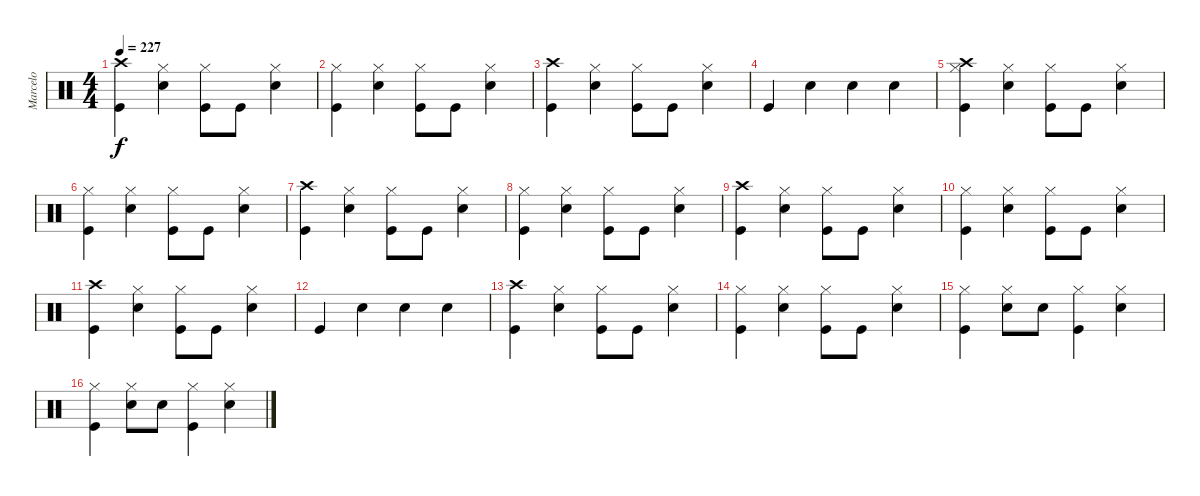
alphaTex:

\track ("Marcelo" "Marcelo") {instrument percussion}
\staff {score}
\articulation defaults
\ts (4 4)
\tempo 227
\clef neutral
\ks c
("Crash high (hit)" "Kick (hit)").4{dy f} ("Hi-Hat (closed)" "Snare (hit) 2").4 ("Hi-Hat (closed)" "Kick (hit)").8 "Kick (hit)".8 ("Hi-Hat (closed)" "Snare (hit) 2").4 |
("Hi-Hat (closed)" "Kick (hit)").4 ("Hi-Hat (closed)" "Snare (hit) 2").4 ("Hi-Hat (closed)" "Kick (hit)").8 "Kick (hit)".8 ("Hi-Hat (closed)" "Snare (hit) 2").4 |
("Crash high (hit)" "Kick (hit)").4 ("Hi-Hat (closed)" "Snare (hit) 2").4 ("Hi-Hat (closed)" "Kick (hit)").8 "Kick (hit)".8 ("Hi-Hat (closed)" "Snare (hit) 2").4 |
"Kick (hit)".4 "Snare (hit) 2".4 "Snare (hit) 2".4 "Snare (hit) 2".4 |
("Crash high (hit)" "Hi-Hat (closed)" "Kick (hit)").4 ("Hi-Hat (closed)" "Snare (hit) 2").4 ("Hi-Hat (closed)" "Kick (hit)").8 "Kick (hit)".8 ("Hi-Hat (closed)" "Snare (hit) 2").4 |
("Hi-Hat (closed)" "Kick (hit)").4 ("Hi-Hat (closed)" "Snare (hit) 2").4 ("Hi-Hat (closed)" "Kick (hit)").8 "Kick (hit)".8 ("Hi-Hat (closed)" "Snare (hit) 2").4 |
("Crash high (hit)" "Kick (hit)").4 ("Hi-Hat (closed)" "Snare (hit) 2").4 ("Hi-Hat (closed)" "Kick (hit)").8 "Kick (hit)".8 ("Hi-Hat (closed)" "Snare (hit) 2").4 |
("Hi-Hat (closed)" "Kick (hit)").4 ("Hi-Hat (closed)" "Snare (hit) 2").4 ("Hi-Hat (closed)" "Kick (hit)").8 "Kick (hit)".8 ("Hi-Hat (closed)" "Snare (hit) 2").4 |
("Crash high (hit)" "Kick (hit)").4 ("Hi-Hat (closed)" "Snare (hit) 2").4 ("Hi-Hat (closed)" "Kick (hit)").8 "Kick (hit)".8 ("Hi-Hat (closed)" "Snare (hit) 2").4 |
("Hi-Hat (closed)" "Kick (hit)").4 ("Hi-Hat (closed)" "Snare (hit) 2").4 ("Hi-Hat (closed)" "Kick (hit)").8 "Kick (hit)".8 ("Hi-Hat (closed)" "Snare (hit) 2").4 |
("Crash high (hit)" "Kick (hit)").4 ("Hi-Hat (closed)" "Snare (hit) 2").4 ("Hi-Hat (closed)" "Kick (hit)").8 "Kick (hit)".8 ("Hi-Hat (closed)" "Snare (hit) 2").4 |
"Kick (hit)".4 "Snare (hit) 2".4 "Snare (hit) 2".4 "Snare (hit) 2".4 |
("Crash high (hit)" "Kick (hit)").4 ("Hi-Hat (closed)" "Snare (hit) 2").4 ("Hi-Hat (closed)" "Kick (hit)").8 "Kick (hit)".8 ("Hi-Hat (closed)" "Snare (hit) 2").4 |
("Hi-Hat (closed)" "Kick (hit)").4 ("Hi-Hat (closed)" "Snare (hit) 2").4 ("Hi-Hat (closed)" "Kick (hit)").8 "Kick (hit)".8 ("Hi-Hat (closed)" "Snare (hit) 2").4 |
("Hi-Hat (closed)" "Kick (hit)").4 ("Hi-Hat (closed)" "Snare (hit) 2").8 "Snare (hit) 2".8 ("Hi-Hat (closed)" "Kick (hit)").4 ("Hi-Hat (closed)" "Snare (hit) 2").4 |
("Hi-Hat (closed)" "Kick (hit)").4 ("Hi-Hat (closed)" "Snare (hit) 2").8 "Snare (hit) 2".8 ("Hi-Hat (closed)" "Kick (hit)").4 ("Hi-Hat (closed)" "Snare (hit) 2").4
